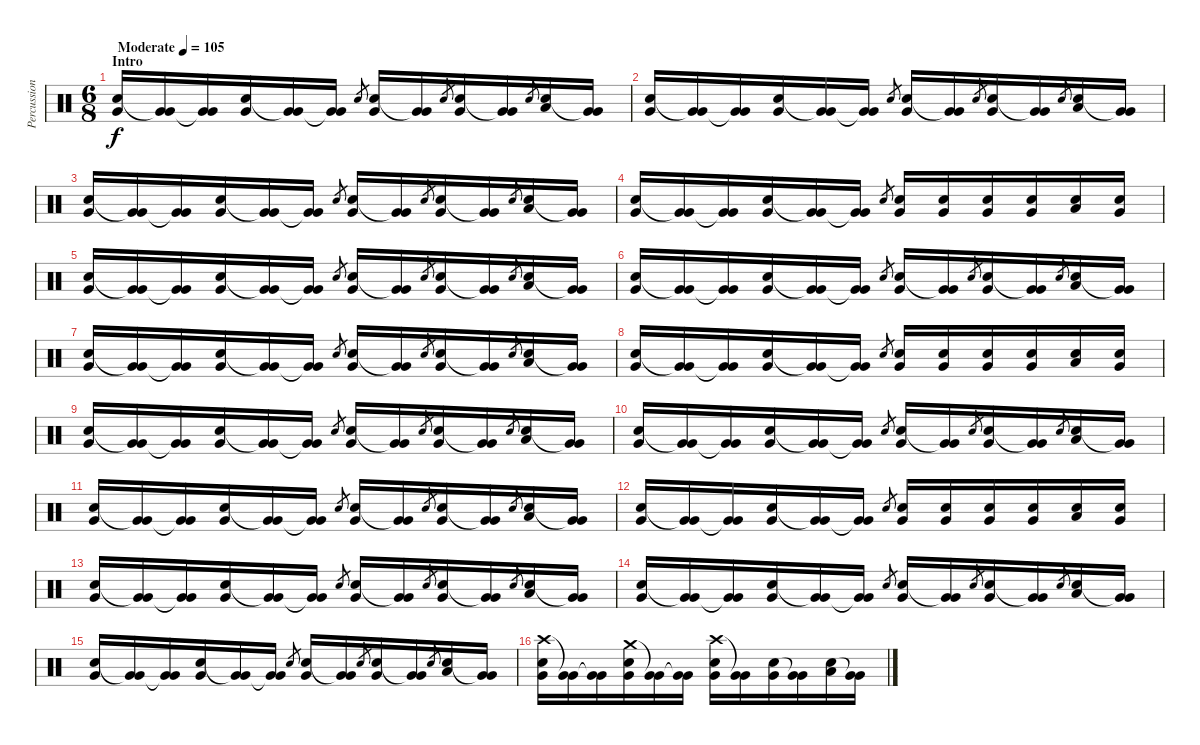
\track ("Percussion" "Percussion") {instrument percussion}
\staff {score}
\articulation defaults
\ts (6 8)
\section ("" "Intro")
\tempo (105 "Moderate")
\clef neutral
\ks c
("Electric Snare (hit)" "Very Low Tom (hit)").16{dy f} ("Very Low Tom (hit)"{t} "Very Low Tom (hit)").16 ("Very Low Tom (hit)"{t} "Very Low Tom (hit)").16 ("Electric Snare (hit)" "Very Low Tom (hit)").16 ("Very Low Tom (hit)"{t} "Very Low Tom (hit)").16 ("Very Low Tom (hit)"{t} "Very Low Tom (hit)").16 "Electric Snare (hit)".8{gr} ("Electric Snare (hit)" "Very Low Tom (hit)").16 ("Very Low Tom (hit)"{t} "Very Low Tom (hit)").16 "Electric Snare (hit)".8{gr} ("Electric Snare (hit)" "Very Low Tom (hit)").16 ("Very Low Tom (hit)"{t} "Very Low Tom (hit)").16 "Electric Snare (hit)".8{gr} ("Electric Snare (hit)" "Low Floor Tom (hit)").16 ("Very Low Tom (hit)"{t} "Very Low Tom (hit)").16 |
("Electric Snare (hit)" "Very Low Tom (hit)").16 ("Very Low Tom (hit)"{t} "Very Low Tom (hit)").16 ("Very Low Tom (hit)"{t} "Very Low Tom (hit)").16 ("Electric Snare (hit)" "Very Low Tom (hit)").16 ("Very Low Tom (hit)"{t} "Very Low Tom (hit)").16 ("Very Low Tom (hit)"{t} "Very Low Tom (hit)").16 "Electric Snare (hit)".8{gr} ("Electric Snare (hit)" "Very Low Tom (hit)").16 ("Very Low Tom (hit)"{t} "Very Low Tom (hit)").16 "Electric Snare (hit)".8{gr} ("Electric Snare (hit)" "Very Low Tom (hit)").16 ("Very Low Tom (hit)"{t} "Very Low Tom (hit)").16 "Electric Snare (hit)".8{gr} ("Electric Snare (hit)" "Low Floor Tom (hit)").16 ("Very Low Tom (hit)"{t} "Very Low Tom (hit)").16 |
("Electric Snare (hit)" "Very Low Tom (hit)").16 ("Very Low Tom (hit)"{t} "Very Low Tom (hit)").16 ("Very Low Tom (hit)"{t} "Very Low Tom (hit)").16 ("Electric Snare (hit)" "Very Low Tom (hit)").16 ("Very Low Tom (hit)"{t} "Very Low Tom (hit)").16 ("Very Low Tom (hit)"{t} "Very Low Tom (hit)").16 "Electric Snare (hit)".8{gr} ("Electric Snare (hit)" "Very Low Tom (hit)").16 ("Very Low Tom (hit)"{t} "Very Low Tom (hit)").16 "Electric Snare (hit)".8{gr} ("Electric Snare (hit)" "Very Low Tom (hit)").16 ("Very Low Tom (hit)"{t} "Very Low Tom (hit)").16 "Electric Snare (hit)".8{gr} ("Electric Snare (hit)" "Low Floor Tom (hit)").16 ("Very Low Tom (hit)"{t} "Very Low Tom (hit)").16 |
("Electric Snare (hit)" "Very Low Tom (hit)").16 ("Very Low Tom (hit)"{t} "Very Low Tom (hit)").16 ("Very Low Tom (hit)"{t} "Very Low Tom (hit)").16 ("Electric Snare (hit)" "Very Low Tom (hit)").16 ("Very Low Tom (hit)"{t} "Very Low Tom (hit)").16 ("Very Low Tom (hit)"{t} "Very Low Tom (hit)").16 "Electric Snare (hit)".8{gr} ("Electric Snare (hit)" "Very Low Tom (hit)").16 ("Electric Snare (hit)" "Very Low Tom (hit)").16 ("Electric Snare (hit)" "Very Low Tom (hit)").16 ("Electric Snare (hit)" "Very Low Tom (hit)").16 ("Electric Snare (hit)" "Low Floor Tom (hit)").16 ("Electric Snare (hit)" "Very Low Tom (hit)").16 |
("Electric Snare (hit)" "Very Low Tom (hit)").16 ("Very Low Tom (hit)"{t} "Very Low Tom (hit)").16 ("Very Low Tom (hit)"{t} "Very Low Tom (hit)").16 ("Electric Snare (hit)" "Very Low Tom (hit)").16 ("Very Low Tom (hit)"{t} "Very Low Tom (hit)").16 ("Very Low Tom (hit)"{t} "Very Low Tom (hit)").16 "Electric Snare (hit)".8{gr} ("Electric Snare (hit)" "Very Low Tom (hit)").16 ("Very Low Tom (hit)"{t} "Very Low Tom (hit)").16 "Electric Snare (hit)".8{gr} ("Electric Snare (hit)" "Very Low Tom (hit)").16 ("Very Low Tom (hit)"{t} "Very Low Tom (hit)").16 "Electric Snare (hit)".8{gr} ("Electric Snare (hit)" "Low Floor Tom (hit)").16 ("Very Low Tom (hit)"{t} "Very Low Tom (hit)").16 |
("Electric Snare (hit)" "Very Low Tom (hit)").16 ("Very Low Tom (hit)"{t} "Very Low Tom (hit)").16 ("Very Low Tom (hit)"{t} "Very Low Tom (hit)").16 ("Electric Snare (hit)" "Very Low Tom (hit)").16 ("Very Low Tom (hit)"{t} "Very Low Tom (hit)").16 ("Very Low Tom (hit)"{t} "Very Low Tom (hit)").16 "Electric Snare (hit)".8{gr} ("Electric Snare (hit)" "Very Low Tom (hit)").16 ("Very Low Tom (hit)"{t} "Very Low Tom (hit)").16 "Electric Snare (hit)".8{gr} ("Electric Snare (hit)" "Very Low Tom (hit)").16 ("Very Low Tom (hit)"{t} "Very Low Tom (hit)").16 "Electric Snare (hit)".8{gr} ("Electric Snare (hit)" "Low Floor Tom (hit)").16 ("Very Low Tom (hit)"{t} "Very Low Tom (hit)").16 |
("Electric Snare (hit)" "Very Low Tom (hit)").16 ("Very Low Tom (hit)"{t} "Very Low Tom (hit)").16 ("Very Low Tom (hit)"{t} "Very Low Tom (hit)").16 ("Electric Snare (hit)" "Very Low Tom (hit)").16 ("Very Low Tom (hit)"{t} "Very Low Tom (hit)").16 ("Very Low Tom (hit)"{t} "Very Low Tom (hit)").16 "Electric Snare (hit)".8{gr} ("Electric Snare (hit)" "Very Low Tom (hit)").16 ("Very Low Tom (hit)"{t} "Very Low Tom (hit)").16 "Electric Snare (hit)".8{gr} ("Electric Snare (hit)" "Very Low Tom (hit)").16 ("Very Low Tom (hit)"{t} "Very Low Tom (hit)").16 "Electric Snare (hit)".8{gr} ("Electric Snare (hit)" "Low Floor Tom (hit)").16 ("Very Low Tom (hit)"{t} "Very Low Tom (hit)").16 |
("Electric Snare (hit)" "Very Low Tom (hit)").16 ("Very Low Tom (hit)"{t} "Very Low Tom (hit)").16 ("Very Low Tom (hit)"{t} "Very Low Tom (hit)").16 ("Electric Snare (hit)" "Very Low Tom (hit)").16 ("Very Low Tom (hit)"{t} "Very Low Tom (hit)").16 ("Very Low Tom (hit)"{t} "Very Low Tom (hit)").16 "Electric Snare (hit)".8{gr} ("Electric Snare (hit)" "Very Low Tom (hit)").16 ("Electric Snare (hit)" "Very Low Tom (hit)").16 ("Electric Snare (hit)" "Very Low Tom (hit)").16 ("Electric Snare (hit)" "Very Low Tom (hit)").16 ("Electric Snare (hit)" "Low Floor Tom (hit)").16 ("Electric Snare (hit)" "Very Low Tom (hit)").16 |
("Electric Snare (hit)" "Very Low Tom (hit)").16 ("Very Low Tom (hit)"{t} "Very Low Tom (hit)").16 ("Very Low Tom (hit)"{t} "Very Low Tom (hit)").16 ("Electric Snare (hit)" "Very Low Tom (hit)").16 ("Very Low Tom (hit)"{t} "Very Low Tom (hit)").16 ("Very Low Tom (hit)"{t} "Very Low Tom (hit)").16 "Electric Snare (hit)".8{gr} ("Electric Snare (hit)" "Very Low Tom (hit)").16 ("Very Low Tom (hit)"{t} "Very Low Tom (hit)").16 "Electric Snare (hit)".8{gr} ("Electric Snare (hit)" "Very Low Tom (hit)").16 ("Very Low Tom (hit)"{t} "Very Low Tom (hit)").16 "Electric Snare (hit)".8{gr} ("Electric Snare (hit)" "Low Floor Tom (hit)").16 ("Very Low Tom (hit)"{t} "Very Low Tom (hit)").16 |
("Electric Snare (hit)" "Very Low Tom (hit)").16 ("Very Low Tom (hit)"{t} "Very Low Tom (hit)").16 ("Very Low Tom (hit)"{t} "Very Low Tom (hit)").16 ("Electric Snare (hit)" "Very Low Tom (hit)").16 ("Very Low Tom (hit)"{t} "Very Low Tom (hit)").16 ("Very Low Tom (hit)"{t} "Very Low Tom (hit)").16 "Electric Snare (hit)".8{gr} ("Electric Snare (hit)" "Very Low Tom (hit)").16 ("Very Low Tom (hit)"{t} "Very Low Tom (hit)").16 "Electric Snare (hit)".8{gr} ("Electric Snare (hit)" "Very Low Tom (hit)").16 ("Very Low Tom (hit)"{t} "Very Low Tom (hit)").16 "Electric Snare (hit)".8{gr} ("Electric Snare (hit)" "Low Floor Tom (hit)").16 ("Very Low Tom (hit)"{t} "Very Low Tom (hit)").16 |
("Electric Snare (hit)" "Very Low Tom (hit)").16 ("Very Low Tom (hit)"{t} "Very Low Tom (hit)").16 ("Very Low Tom (hit)"{t} "Very Low Tom (hit)").16 ("Electric Snare (hit)" "Very Low Tom (hit)").16 ("Very Low Tom (hit)"{t} "Very Low Tom (hit)").16 ("Very Low Tom (hit)"{t} "Very Low Tom (hit)").16 "Electric Snare (hit)".8{gr} ("Electric Snare (hit)" "Very Low Tom (hit)").16 ("Very Low Tom (hit)"{t} "Very Low Tom (hit)").16 "Electric Snare (hit)".8{gr} ("Electric Snare (hit)" "Very Low Tom (hit)").16 ("Very Low Tom (hit)"{t} "Very Low Tom (hit)").16 "Electric Snare (hit)".8{gr} ("Electric Snare (hit)" "Low Floor Tom (hit)").16 ("Very Low Tom (hit)"{t} "Very Low Tom (hit)").16 |
("Electric Snare (hit)" "Very Low Tom (hit)").16 ("Very Low Tom (hit)"{t} "Very Low Tom (hit)").16 ("Very Low Tom (hit)"{t} "Very Low Tom (hit)").16 ("Electric Snare (hit)" "Very Low Tom (hit)").16 ("Very Low Tom (hit)"{t} "Very Low Tom (hit)").16 ("Very Low Tom (hit)"{t} "Very Low Tom (hit)").16 "Electric Snare (hit)".8{gr} ("Electric Snare (hit)" "Very Low Tom (hit)").16 ("Electric Snare (hit)" "Very Low Tom (hit)").16 ("Electric Snare (hit)" "Very Low Tom (hit)").16 ("Electric Snare (hit)" "Very Low Tom (hit)").16 ("Electric Snare (hit)" "Low Floor Tom (hit)").16 ("Electric Snare (hit)" "Very Low Tom (hit)").16 |
("Electric Snare (hit)" "Very Low Tom (hit)").16 ("Very Low Tom (hit)"{t} "Very Low Tom (hit)").16 ("Very Low Tom (hit)"{t} "Very Low Tom (hit)").16 ("Electric Snare (hit)" "Very Low Tom (hit)").16 ("Very Low Tom (hit)"{t} "Very Low Tom (hit)").16 ("Very Low Tom (hit)"{t} "Very Low Tom (hit)").16 "Electric Snare (hit)".8{gr} ("Electric Snare (hit)" "Very Low Tom (hit)").16 ("Very Low Tom (hit)"{t} "Very Low Tom (hit)").16 "Electric Snare (hit)".8{gr} ("Electric Snare (hit)" "Very Low Tom (hit)").16 ("Very Low Tom (hit)"{t} "Very Low Tom (hit)").16 "Electric Snare (hit)".8{gr} ("Electric Snare (hit)" "Low Floor Tom (hit)").16 ("Very Low Tom (hit)"{t} "Very Low Tom (hit)").16 |
("Electric Snare (hit)" "Very Low Tom (hit)").16 ("Very Low Tom (hit)"{t} "Very Low Tom (hit)").16 ("Very Low Tom (hit)"{t} "Very Low Tom (hit)").16 ("Electric Snare (hit)" "Very Low Tom (hit)").16 ("Very Low Tom (hit)"{t} "Very Low Tom (hit)").16 ("Very Low Tom (hit)"{t} "Very Low Tom (hit)").16 "Electric Snare (hit)".8{gr} ("Electric Snare (hit)" "Very Low Tom (hit)").16 ("Very Low Tom (hit)"{t} "Very Low Tom (hit)").16 "Electric Snare (hit)".8{gr} ("Electric Snare (hit)" "Very Low Tom (hit)").16 ("Very Low Tom (hit)"{t} "Very Low Tom (hit)").16 "Electric Snare (hit)".8{gr} ("Electric Snare (hit)" "Low Floor Tom (hit)").16 ("Very Low Tom (hit)"{t} "Very Low Tom (hit)").16 |
("Electric Snare (hit)" "Very Low Tom (hit)").16 ("Very Low Tom (hit)"{t} "Very Low Tom (hit)").16 ("Very Low Tom (hit)"{t} "Very Low Tom (hit)").16 ("Electric Snare (hit)" "Very Low Tom (hit)").16 ("Very Low Tom (hit)"{t} "Very Low Tom (hit)").16 ("Very Low Tom (hit)"{t} "Very Low Tom (hit)").16 "Electric Snare (hit)".8{gr} ("Electric Snare (hit)" "Very Low Tom (hit)").16 ("Very Low Tom (hit)"{t} "Very Low Tom (hit)").16 "Electric Snare (hit)".8{gr} ("Electric Snare (hit)" "Very Low Tom (hit)").16 ("Very Low Tom (hit)"{t} "Very Low Tom (hit)").16 "Electric Snare (hit)".8{gr} ("Electric Snare (hit)" "Low Floor Tom (hit)").16 ("Very Low Tom (hit)"{t} "Very Low Tom (hit)").16 |
("Crash high (hit)" "Electric Snare (hit)" "Very Low Tom (hit)").16 ("Very Low Tom (hit)"{t} "Very Low Tom (hit)").16 ("Very Low Tom (hit)"{t} "Very Low Tom (hit)").16 ("Crash medium (hit)" "Electric Snare (hit)" "Very Low Tom (hit)").16 ("Very Low Tom (hit)"{t} "Very Low Tom (hit)").16 ("Very Low Tom (hit)"{t} "Very Low Tom (hit)").16 ("Crash high (hit)" "Electric Snare (hit)" "Very Low Tom (hit)").16 ("Very Low Tom (hit)"{t} "Very Low Tom (hit)").16 ("Electric Snare (hit)" "Very Low Tom (hit)").16 ("Very Low Tom (hit)"{t} "Very Low Tom (hit)").16 ("Electric Snare (hit)" "Low Floor Tom (hit)").16 ("Very Low Tom (hit)"{t} "Very Low Tom (hit)").16
